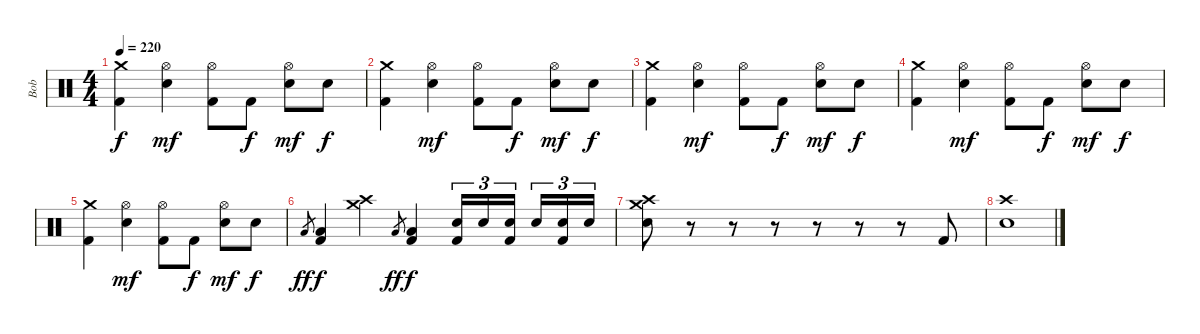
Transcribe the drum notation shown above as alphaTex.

\track ("Bob" "Bob") {instrument percussion}
\staff {score}
\articulation defaults
\ts (4 4)
\tempo 220
\clef neutral
\ks c
("Crash medium (hit)" "Kick (hit) 2").4{dy f} ("Hi-Hat (open)" "Electric Snare (hit)").4{dy mf} ("Hi-Hat (open)" "Kick (hit) 2").8 "Kick (hit) 2".8{dy f} ("Hi-Hat (open)" "Electric Snare (hit)").8{dy mf} "Electric Snare (hit)".8{dy f} |
("Crash medium (hit)" "Kick (hit) 2").4 ("Hi-Hat (open)" "Electric Snare (hit)").4{dy mf} ("Hi-Hat (open)" "Kick (hit) 2").8 "Kick (hit) 2".8{dy f} ("Hi-Hat (open)" "Electric Snare (hit)").8{dy mf} "Electric Snare (hit)".8{dy f} |
("Crash medium (hit)" "Kick (hit) 2").4 ("Hi-Hat (open)" "Electric Snare (hit)").4{dy mf} ("Hi-Hat (open)" "Kick (hit) 2").8 "Kick (hit) 2".8{dy f} ("Hi-Hat (open)" "Electric Snare (hit)").8{dy mf} "Electric Snare (hit)".8{dy f} |
("Crash medium (hit)" "Kick (hit) 2").4 ("Hi-Hat (open)" "Electric Snare (hit)").4{dy mf} ("Hi-Hat (open)" "Kick (hit) 2").8 "Kick (hit) 2".8{dy f} ("Hi-Hat (open)" "Electric Snare (hit)").8{dy mf} "Electric Snare (hit)".8{dy f} |
("Crash medium (hit)" "Kick (hit) 2").4 ("Hi-Hat (open)" "Electric Snare (hit)").4{dy mf} ("Hi-Hat (open)" "Kick (hit) 2").8 "Kick (hit) 2".8{dy f} ("Hi-Hat (open)" "Electric Snare (hit)").8{dy mf} "Electric Snare (hit)".8{dy f} |
"Low Floor Tom (hit)".8{gr dy ff} ("Low Floor Tom (hit)" "Kick (hit) 2").4{dy f} ("Crash medium (hit)" "Crash high (hit)").4 "Low Floor Tom (hit)".8{gr dy ff} ("Low Floor Tom (hit)" "Kick (hit) 2").4{dy f} ("Snare (hit) 2" "Kick (hit) 2").16{tu (3 2)} "Snare (hit) 2".16{tu (3 2)} ("Snare (hit) 2" "Kick (hit) 2").16{tu (3 2)} "Snare (hit) 2".16{tu (3 2)} ("Snare (hit) 2" "Kick (hit) 2").16{tu (3 2)} "Snare (hit) 2".16{tu (3 2)} |
("Crash medium (hit)" "Crash high (hit)" "Electric Snare (hit)").8 r.8 r.8 r.8 r.8 r.8 r.8 "Kick (hit) 2".8 |
("Crash high (hit)" "Electric Snare (hit)").1
